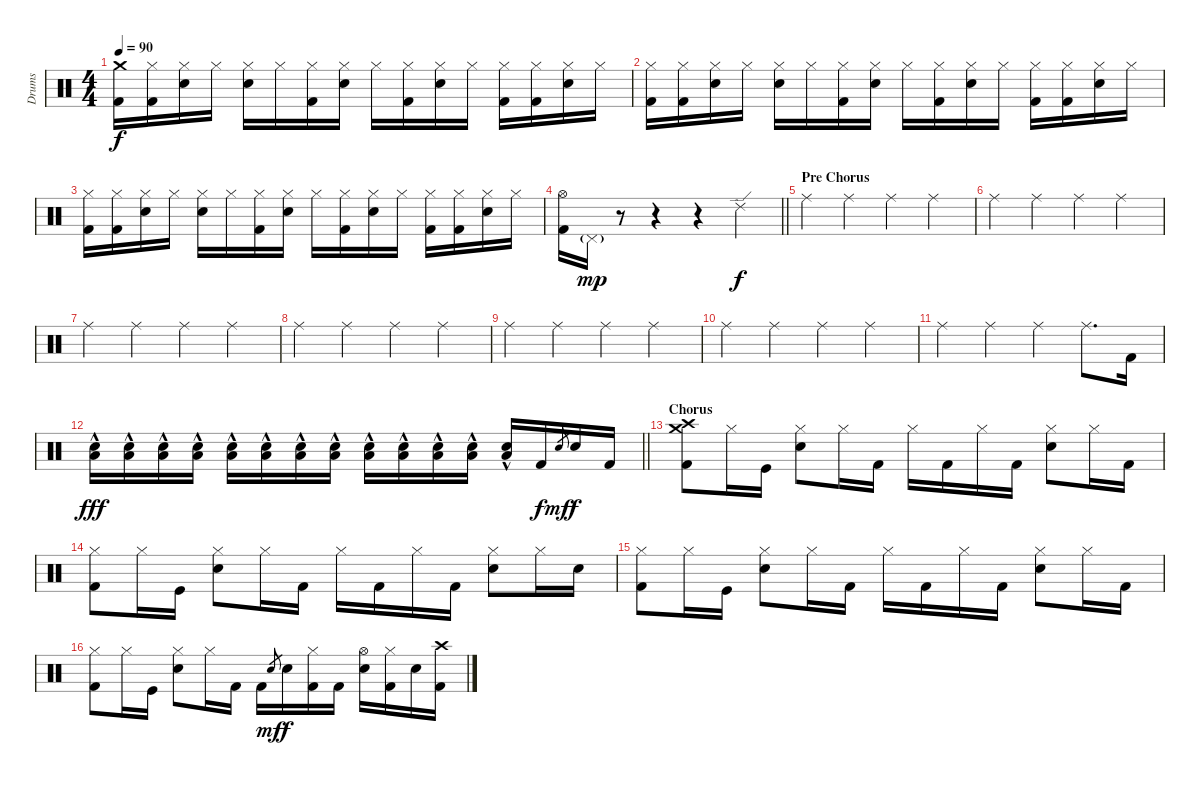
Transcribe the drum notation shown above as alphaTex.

\track ("Drums" "Drums") {instrument percussion}
\staff {score}
\articulation defaults
\ts (4 4)
\tempo 90
\clef neutral
\ks c
("Crash medium (hit)" "Kick (hit) 2").16{dy f} ("Hi-Hat (closed)" "Kick (hit) 2").16 ("Hi-Hat (closed)" "Snare (hit) 2").16 "Hi-Hat (closed)".16 ("Hi-Hat (closed)" "Snare (hit) 2").16 "Hi-Hat (closed)".16 ("Hi-Hat (closed)" "Kick (hit) 2").16 ("Hi-Hat (closed)" "Snare (hit) 2").16 "Hi-Hat (closed)".16 ("Hi-Hat (closed)" "Kick (hit) 2").16 ("Hi-Hat (closed)" "Snare (hit) 2").16 "Hi-Hat (closed)".16 ("Hi-Hat (closed)" "Kick (hit) 2").16 ("Hi-Hat (closed)" "Kick (hit) 2").16 ("Hi-Hat (closed)" "Snare (hit) 2").16 "Hi-Hat (closed)".16 |
("Hi-Hat (closed)" "Kick (hit) 2").16 ("Hi-Hat (closed)" "Kick (hit) 2").16 ("Hi-Hat (closed)" "Snare (hit) 2").16 "Hi-Hat (closed)".16 ("Hi-Hat (closed)" "Snare (hit) 2").16 "Hi-Hat (closed)".16 ("Hi-Hat (closed)" "Kick (hit) 2").16 ("Hi-Hat (closed)" "Snare (hit) 2").16 "Hi-Hat (closed)".16 ("Hi-Hat (closed)" "Kick (hit) 2").16 ("Hi-Hat (closed)" "Snare (hit) 2").16 "Hi-Hat (closed)".16 ("Hi-Hat (closed)" "Kick (hit) 2").16 ("Hi-Hat (closed)" "Kick (hit) 2").16 ("Hi-Hat (closed)" "Snare (hit) 2").16 "Hi-Hat (closed)".16 |
("Hi-Hat (closed)" "Kick (hit) 2").16 ("Hi-Hat (closed)" "Kick (hit) 2").16 ("Hi-Hat (closed)" "Snare (hit) 2").16 "Hi-Hat (closed)".16 ("Hi-Hat (closed)" "Snare (hit) 2").16 "Hi-Hat (closed)".16 ("Hi-Hat (closed)" "Kick (hit) 2").16 ("Hi-Hat (closed)" "Snare (hit) 2").16 "Hi-Hat (closed)".16 ("Hi-Hat (closed)" "Kick (hit) 2").16 ("Hi-Hat (closed)" "Snare (hit) 2").16 "Hi-Hat (closed)".16 ("Hi-Hat (closed)" "Kick (hit) 2").16 ("Hi-Hat (closed)" "Kick (hit) 2").16 ("Hi-Hat (closed)" "Snare (hit) 2").16 "Hi-Hat (closed)".16 |
\barLineRight lightlight
("Hi-Hat (open)" "Kick (hit) 2").16 "Pedal Hi-Hat (hit)"{g}.16{dy mp} r.8 r.4 r.4 "Ride (edge) 2".4{dy f} |
\section ("" "Pre Chorus")
"Ride (middle)".4 "Ride (middle)".4 "Ride (middle)".4 "Ride (middle)".4 |
"Ride (middle)".4 "Ride (middle)".4 "Ride (middle)".4 "Ride (middle)".4 |
"Ride (middle)".4 "Ride (middle)".4 "Ride (middle)".4 "Ride (middle)".4 |
"Ride (middle)".4 "Ride (middle)".4 "Ride (middle)".4 "Ride (middle)".4 |
"Ride (middle)".4 "Ride (middle)".4 "Ride (middle)".4 "Ride (middle)".4 |
"Ride (middle)".4 "Ride (middle)".4 "Ride (middle)".4 "Ride (middle)".4 |
"Ride (middle)".4 "Ride (middle)".4 "Ride (middle)".4 "Ride (middle)".8{d} "Kick (hit) 2".16{volume 5} |
\barLineRight lightlight
("Low Tom (hit)"{hac} "Snare (hit) 2").16{dy fff volume 10} ("Low Tom (hit)"{hac} "Snare (hit) 2").16 ("Low Tom (hit)"{hac} "Snare (hit) 2").16 ("Low Tom (hit)"{hac} "Snare (hit) 2").16 ("Low Tom (hit)"{hac} "Snare (hit) 2").16 ("Low Tom (hit)"{hac} "Snare (hit) 2").16 ("Low Tom (hit)"{hac} "Snare (hit) 2").16 ("Low Tom (hit)"{hac} "Snare (hit) 2").16 ("Low Tom (hit)"{hac} "Snare (hit) 2").16 ("Low Tom (hit)"{hac} "Snare (hit) 2").16 ("Low Tom (hit)"{hac} "Snare (hit) 2").16 ("Low Tom (hit)"{hac} "Snare (hit) 2").16 ("Low Tom (hit)"{hac} "Snare (hit) 2").16 "Kick (hit) 2".16{dy f} "Snare (hit) 2"{h}.8{gr dy mf} "Snare (hit) 2".16{dy f} "Kick (hit) 2".16 |
\section ("" "Chorus")
("Crash medium (hit)" "Crash high (hit)" "Kick (hit) 2").8 "Hi-Hat (closed)".16 "Kick (hit)".16 ("Hi-Hat (closed)" "Snare (hit) 2").8 "Hi-Hat (closed)".16 "Kick (hit) 2".16 "Hi-Hat (closed)".16 "Kick (hit) 2".16 "Hi-Hat (closed)".16 "Kick (hit) 2".16 ("Hi-Hat (closed)" "Snare (hit) 2").8 "Hi-Hat (closed)".16 "Kick (hit) 2".16 |
("Hi-Hat (closed)" "Kick (hit) 2").8 "Hi-Hat (closed)".16 "Kick (hit)".16 ("Hi-Hat (closed)" "Snare (hit) 2").8 "Hi-Hat (closed)".16 "Kick (hit) 2".16 "Hi-Hat (closed)".16 "Kick (hit) 2".16 "Hi-Hat (closed)".16 "Kick (hit) 2".16 ("Hi-Hat (closed)" "Snare (hit) 2").8 "Hi-Hat (closed)".16 "Snare (hit) 2".16 |
("Hi-Hat (closed)" "Kick (hit) 2").8 "Hi-Hat (closed)".16 "Kick (hit)".16 ("Hi-Hat (closed)" "Snare (hit) 2").8 "Hi-Hat (closed)".16 "Kick (hit) 2".16 "Hi-Hat (closed)".16 "Kick (hit) 2".16 "Hi-Hat (closed)".16 "Kick (hit) 2".16 ("Hi-Hat (closed)" "Snare (hit) 2").8 "Hi-Hat (closed)".16 "Kick (hit) 2".16 |
("Hi-Hat (closed)" "Kick (hit) 2").8 "Hi-Hat (closed)".16 "Kick (hit)".16 ("Hi-Hat (closed)" "Snare (hit) 2").8 "Hi-Hat (closed)".16 "Kick (hit) 2".16 "Kick (hit) 2".16 "Snare (hit) 2"{h}.8{gr dy mf} "Snare (hit) 2".16{dy f} ("Hi-Hat (closed)" "Kick (hit) 2").16 "Kick (hit) 2".16 ("Hi-Hat (open)" "Snare (hit) 2").16 ("Hi-Hat (closed)" "Kick (hit) 2").16 "Snare (hit) 2".16 ("Crash high (hit)" "Kick (hit) 2").16
